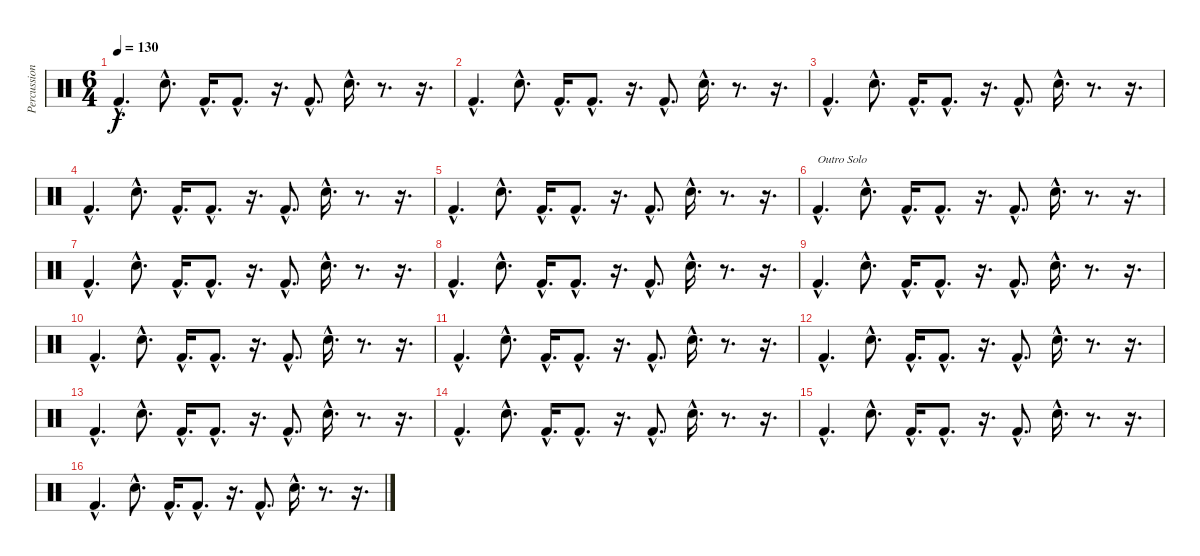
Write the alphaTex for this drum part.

\track ("Percussion" "Percussion") {instrument percussion}
\staff {score}
\articulation defaults
\ts (6 4)
\tempo 130
\clef neutral
\ks c "Kick (hit) 2"{hac}.4{d dy f} "Snare (hit) 2"{hac}.8{d} "Kick (hit) 2"{hac}.16{d} "Kick (hit) 2"{hac}.8{d}
r.16{d} "Kick (hit) 2"{hac}.8{d} "Snare (hit) 2"{hac}.16{d} r.8{d} r.16{d} |
"Kick (hit) 2"{hac}.4{d} "Snare (hit) 2"{hac}.8{d} "Kick (hit) 2"{hac}.16{d} "Kick (hit) 2"{hac}.8{d} r.16{d} "Kick (hit) 2"{hac}.8{d} "Snare (hit) 2"{hac}.16{d} r.8{d} r.16{d} |
"Kick (hit) 2"{hac}.4{d} "Snare (hit) 2"{hac}.8{d} "Kick (hit) 2"{hac}.16{d} "Kick (hit) 2"{hac}.8{d} r.16{d} "Kick (hit) 2"{hac}.8{d} "Snare (hit) 2"{hac}.16{d} r.8{d} r.16{d} |
"Kick (hit) 2"{hac}.4{d} "Snare (hit) 2"{hac}.8{d} "Kick (hit) 2"{hac}.16{d} "Kick (hit) 2"{hac}.8{d} r.16{d} "Kick (hit) 2"{hac}.8{d} "Snare (hit) 2"{hac}.16{d} r.8{d} r.16{d} |
"Kick (hit) 2"{hac}.4{d} "Snare (hit) 2"{hac}.8{d} "Kick (hit) 2"{hac}.16{d} "Kick (hit) 2"{hac}.8{d} r.16{d} "Kick (hit) 2"{hac}.8{d} "Snare (hit) 2"{hac}.16{d} r.8{d} r.16{d} |
"Kick (hit) 2"{hac}.4{d txt "Outro Solo"} "Snare (hit) 2"{hac}.8{d} "Kick (hit) 2"{hac}.16{d} "Kick (hit) 2"{hac}.8{d} r.16{d} "Kick (hit) 2"{hac}.8{d} "Snare (hit) 2"{hac}.16{d} r.8{d} r.16{d} |
"Kick (hit) 2"{hac}.4{d} "Snare (hit) 2"{hac}.8{d} "Kick (hit) 2"{hac}.16{d} "Kick (hit) 2"{hac}.8{d} r.16{d} "Kick (hit) 2"{hac}.8{d} "Snare (hit) 2"{hac}.16{d} r.8{d} r.16{d} |
"Kick (hit) 2"{hac}.4{d} "Snare (hit) 2"{hac}.8{d} "Kick (hit) 2"{hac}.16{d} "Kick (hit) 2"{hac}.8{d} r.16{d} "Kick (hit) 2"{hac}.8{d} "Snare (hit) 2"{hac}.16{d} r.8{d} r.16{d} |
"Kick (hit) 2"{hac}.4{d} "Snare (hit) 2"{hac}.8{d} "Kick (hit) 2"{hac}.16{d} "Kick (hit) 2"{hac}.8{d} r.16{d} "Kick (hit) 2"{hac}.8{d} "Snare (hit) 2"{hac}.16{d} r.8{d} r.16{d} |
"Kick (hit) 2"{hac}.4{d} "Snare (hit) 2"{hac}.8{d} "Kick (hit) 2"{hac}.16{d} "Kick (hit) 2"{hac}.8{d} r.16{d} "Kick (hit) 2"{hac}.8{d} "Snare (hit) 2"{hac}.16{d} r.8{d} r.16{d} |
"Kick (hit) 2"{hac}.4{d} "Snare (hit) 2"{hac}.8{d} "Kick (hit) 2"{hac}.16{d} "Kick (hit) 2"{hac}.8{d} r.16{d} "Kick (hit) 2"{hac}.8{d} "Snare (hit) 2"{hac}.16{d} r.8{d} r.16{d} |
"Kick (hit) 2"{hac}.4{d} "Snare (hit) 2"{hac}.8{d} "Kick (hit) 2"{hac}.16{d} "Kick (hit) 2"{hac}.8{d} r.16{d} "Kick (hit) 2"{hac}.8{d} "Snare (hit) 2"{hac}.16{d} r.8{d} r.16{d} |
"Kick (hit) 2"{hac}.4{d} "Snare (hit) 2"{hac}.8{d} "Kick (hit) 2"{hac}.16{d} "Kick (hit) 2"{hac}.8{d} r.16{d} "Kick (hit) 2"{hac}.8{d} "Snare (hit) 2"{hac}.16{d} r.8{d} r.16{d} |
"Kick (hit) 2"{hac}.4{d} "Snare (hit) 2"{hac}.8{d} "Kick (hit) 2"{hac}.16{d} "Kick (hit) 2"{hac}.8{d} r.16{d} "Kick (hit) 2"{hac}.8{d} "Snare (hit) 2"{hac}.16{d} r.8{d} r.16{d} |
"Kick (hit) 2"{hac}.4{d} "Snare (hit) 2"{hac}.8{d} "Kick (hit) 2"{hac}.16{d} "Kick (hit) 2"{hac}.8{d} r.16{d} "Kick (hit) 2"{hac}.8{d} "Snare (hit) 2"{hac}.16{d} r.8{d} r.16{d} |
"Kick (hit) 2"{hac}.4{d} "Snare (hit) 2"{hac}.8{d} "Kick (hit) 2"{hac}.16{d} "Kick (hit) 2"{hac}.8{d} r.16{d} "Kick (hit) 2"{hac}.8{d} "Snare (hit) 2"{hac}.16{d} r.8{d} r.16{d}
